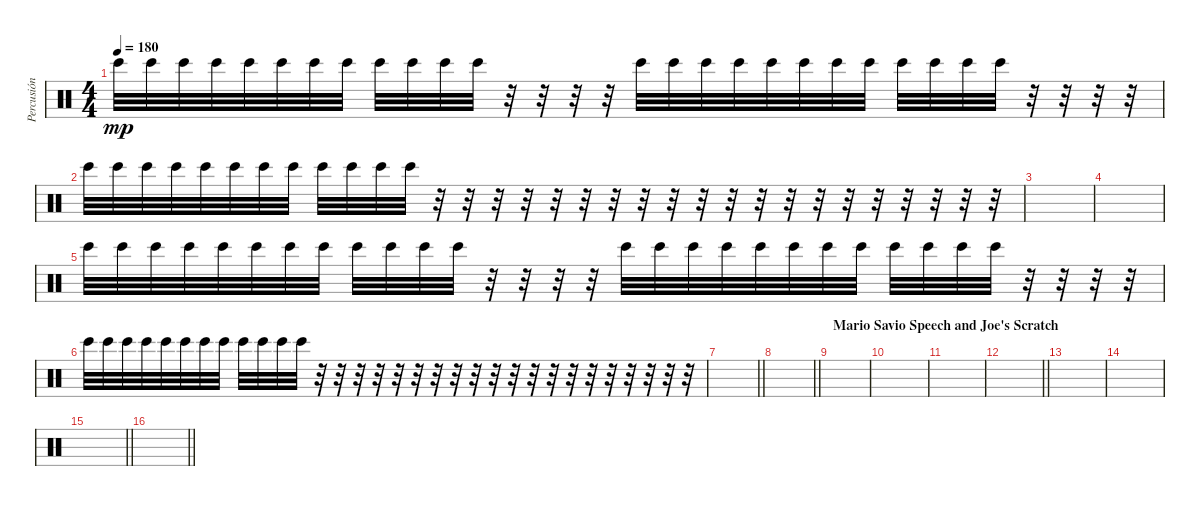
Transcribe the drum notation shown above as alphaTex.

\track ("Percusión" "Percusión") {instrument percussion}
\staff {score}
\articulation defaults
\ts (4 4)
\tempo 180
\clef neutral
\ks c "Bongo High (hit)".32{dy mp} "Bongo High (hit)".32 "Bongo High (hit)".32 "Bongo High (hit)".32 "Bongo High (hit)".32 "Bongo High (hit)".32 "Bongo High (hit)".32 "Bongo High (hit)".32 "Bongo High (hit)".32 "Bongo High (hit)".32 "Bongo High (hit)".32 "Bongo High (hit)".32
r.32 r.32 r.32 r.32 "Bongo High (hit)".32 "Bongo High (hit)".32 "Bongo High (hit)".32 "Bongo High (hit)".32 "Bongo High (hit)".32 "Bongo High (hit)".32 "Bongo High (hit)".32 "Bongo High (hit)".32 "Bongo High (hit)".32 "Bongo High (hit)".32 "Bongo High (hit)".32 "Bongo High (hit)".32 r.32 r.32 r.32 r.32 |
"Bongo High (hit)".32 "Bongo High (hit)".32 "Bongo High (hit)".32 "Bongo High (hit)".32 "Bongo High (hit)".32 "Bongo High (hit)".32 "Bongo High (hit)".32 "Bongo High (hit)".32 "Bongo High (hit)".32 "Bongo High (hit)".32 "Bongo High (hit)".32 "Bongo High (hit)".32 r.32 r.32 r.32 r.32 r.32 r.32 r.32 r.32 r.32 r.32 r.32 r.32 r.32 r.32 r.32 r.32 r.32 r.32 r.32 r.32 |
|
|
"Bongo High (hit)".32 "Bongo High (hit)".32 "Bongo High (hit)".32 "Bongo High (hit)".32 "Bongo High (hit)".32 "Bongo High (hit)".32 "Bongo High (hit)".32 "Bongo High (hit)".32 "Bongo High (hit)".32 "Bongo High (hit)".32 "Bongo High (hit)".32 "Bongo High (hit)".32 r.32 r.32 r.32 r.32 "Bongo High (hit)".32 "Bongo High (hit)".32 "Bongo High (hit)".32 "Bongo High (hit)".32 "Bongo High (hit)".32 "Bongo High (hit)".32 "Bongo High (hit)".32 "Bongo High (hit)".32 "Bongo High (hit)".32 "Bongo High (hit)".32 "Bongo High (hit)".32 "Bongo High (hit)".32 r.32 r.32 r.32 r.32 |
"Bongo High (hit)".32 "Bongo High (hit)".32 "Bongo High (hit)".32 "Bongo High (hit)".32 "Bongo High (hit)".32 "Bongo High (hit)".32 "Bongo High (hit)".32 "Bongo High (hit)".32 "Bongo High (hit)".32 "Bongo High (hit)".32 "Bongo High (hit)".32 "Bongo High (hit)".32 r.32 r.32 r.32 r.32 r.32 r.32 r.32 r.32 r.32 r.32 r.32 r.32 r.32 r.32 r.32 r.32 r.32 r.32 r.32 r.32 |
\barLineRight lightlight
|
\barLineRight lightlight
|
\section ("" "Mario Savio Speech and Joe's Scratch")
|
|
|
\barLineRight lightlight
|
|
|
\barLineRight lightlight
|
\barLineRight lightlight
